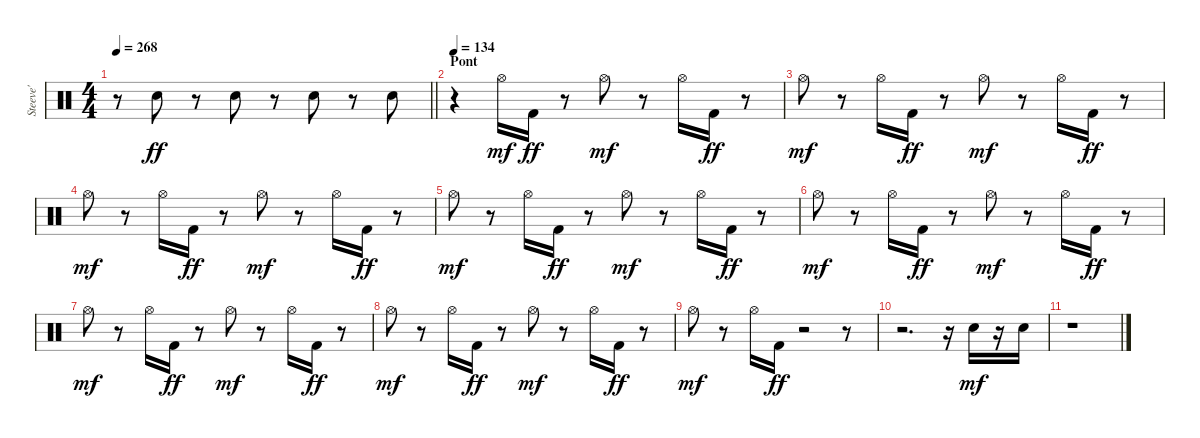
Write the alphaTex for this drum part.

\track ("Steeve'" "Steeve'") {instrument percussion}
\staff {score}
\articulation defaults
\ts (4 4)
\tempo 268
\clef neutral
\barLineRight lightlight
\ks c
r.8{dy ff} "Electric Snare (hit)".8 r.8 "Electric Snare (hit)".8 r.8 "Electric Snare (hit)".8 r.8 "Electric Snare (hit)".8 |
\section ("" "Pont")
\tempo 134
r.4 "Hi-Hat (open)".16{dy mf} "Kick (hit) 2".16{dy ff} r.8 "Hi-Hat (open)".8{dy mf} r.8 "Hi-Hat (open)".16 "Kick (hit) 2".16{dy ff} r.8 |
"Hi-Hat (open)".8{dy mf} r.8 "Hi-Hat (open)".16 "Kick (hit) 2".16{dy ff} r.8 "Hi-Hat (open)".8{dy mf} r.8 "Hi-Hat (open)".16 "Kick (hit) 2".16{dy ff} r.8 |
"Hi-Hat (open)".8{dy mf} r.8 "Hi-Hat (open)".16 "Kick (hit) 2".16{dy ff} r.8 "Hi-Hat (open)".8{dy mf} r.8 "Hi-Hat (open)".16 "Kick (hit) 2".16{dy ff} r.8 |
"Hi-Hat (open)".8{dy mf} r.8 "Hi-Hat (open)".16 "Kick (hit) 2".16{dy ff} r.8 "Hi-Hat (open)".8{dy mf} r.8 "Hi-Hat (open)".16 "Kick (hit) 2".16{dy ff} r.8 |
"Hi-Hat (open)".8{dy mf} r.8 "Hi-Hat (open)".16 "Kick (hit) 2".16{dy ff} r.8 "Hi-Hat (open)".8{dy mf} r.8 "Hi-Hat (open)".16 "Kick (hit) 2".16{dy ff} r.8 |
"Hi-Hat (open)".8{dy mf} r.8 "Hi-Hat (open)".16 "Kick (hit) 2".16{dy ff} r.8 "Hi-Hat (open)".8{dy mf} r.8 "Hi-Hat (open)".16 "Kick (hit) 2".16{dy ff} r.8 |
"Hi-Hat (open)".8{dy mf} r.8 "Hi-Hat (open)".16 "Kick (hit) 2".16{dy ff} r.8 "Hi-Hat (open)".8{dy mf} r.8 "Hi-Hat (open)".16 "Kick (hit) 2".16{dy ff} r.8 |
"Hi-Hat (open)".8{dy mf} r.8 "Hi-Hat (open)".16 "Kick (hit) 2".16{dy ff} r.2 r.8 |
r.2{d} r.16 "Electric Snare (hit)".16{dy mf} r.16 "Electric Snare (hit)".16 |
r.1
